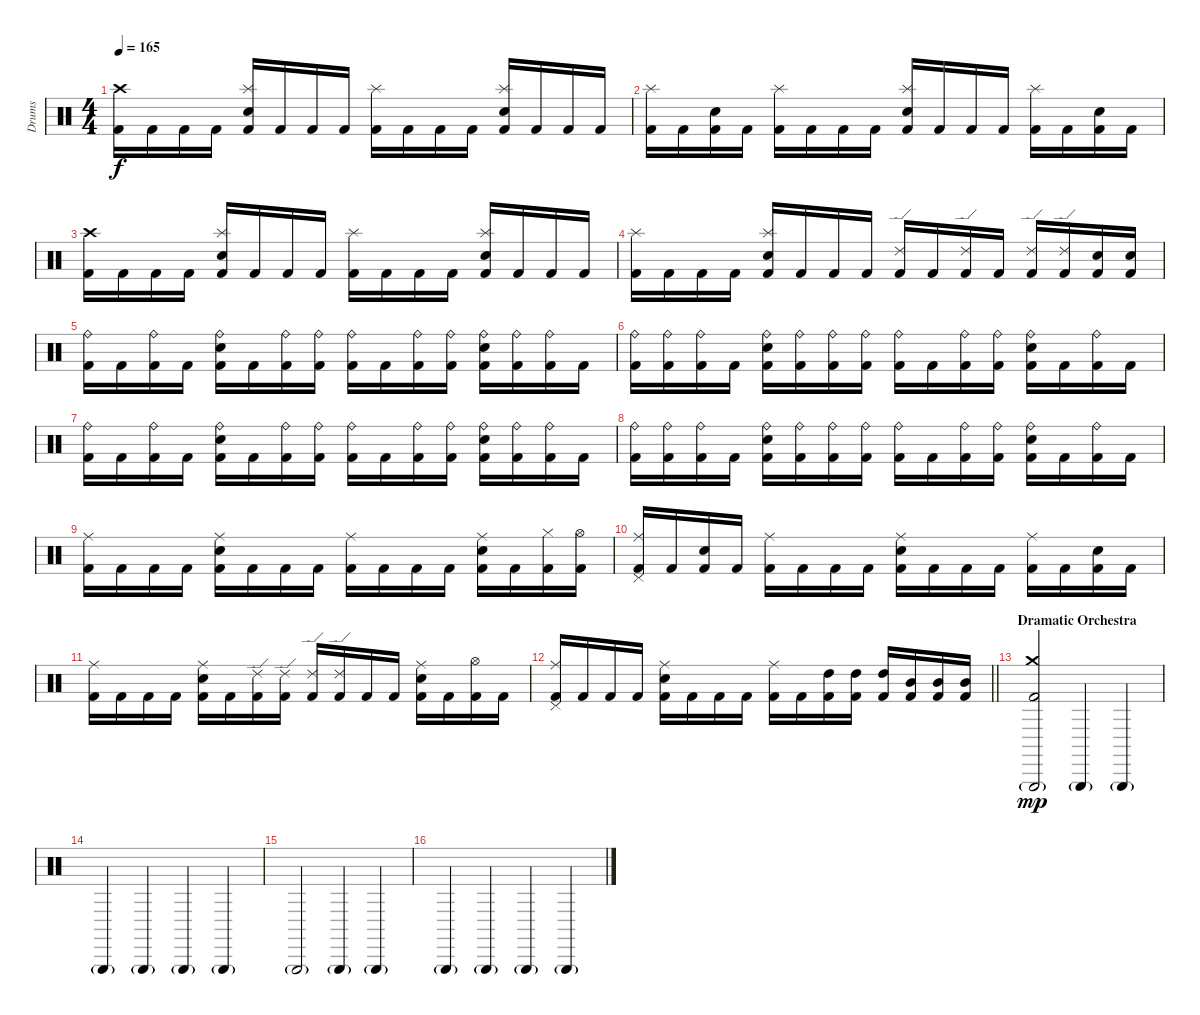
\track ("Drums" "Drums") {instrument percussion}
\staff {score}
\articulation defaults
\ts (4 4)
\tempo 165
\clef neutral
\ks c
("Crash high (hit)" "Kick (hit) 2").16{dy f} "Kick (hit) 2".16 "Kick (hit) 2".16 "Kick (hit) 2".16 ("Splash (hit)" "Snare (hit) 2" "Kick (hit) 2").16 "Kick (hit) 2".16 "Kick (hit) 2".16 "Kick (hit) 2".16 ("Splash (hit)" "Kick (hit) 2").16 "Kick (hit) 2".16 "Kick (hit) 2".16 "Kick (hit) 2".16 ("Splash (hit)" "Snare (hit) 2" "Kick (hit) 2").16 "Kick (hit) 2".16 "Kick (hit) 2".16 "Kick (hit) 2".16 |
("Splash (hit)" "Kick (hit) 2").16 "Kick (hit) 2".16 ("Snare (hit) 2" "Kick (hit) 2").16 "Kick (hit) 2".16 ("Splash (hit)" "Kick (hit) 2").16 "Kick (hit) 2".16 "Kick (hit) 2".16 "Kick (hit) 2".16 ("Splash (hit)" "Snare (hit) 2" "Kick (hit) 2").16 "Kick (hit) 2".16 "Kick (hit) 2".16 "Kick (hit) 2".16 ("Splash (hit)" "Kick (hit) 2").16 "Kick (hit) 2".16 ("Snare (hit) 2" "Kick (hit) 2").16 "Kick (hit) 2".16 |
("Crash high (hit)" "Kick (hit) 2").16 "Kick (hit) 2".16 "Kick (hit) 2".16 "Kick (hit) 2".16 ("Splash (hit)" "Snare (hit) 2" "Kick (hit) 2").16 "Kick (hit) 2".16 "Kick (hit) 2".16 "Kick (hit) 2".16 ("Splash (hit)" "Kick (hit) 2").16 "Kick (hit) 2".16 "Kick (hit) 2".16 "Kick (hit) 2".16 ("Splash (hit)" "Snare (hit) 2" "Kick (hit) 2").16 "Kick (hit) 2".16 "Kick (hit) 2".16 "Kick (hit) 2".16 |
("Splash (hit)" "Kick (hit) 2").16 "Kick (hit) 2".16 "Kick (hit) 2".16 "Kick (hit) 2".16 ("Splash (hit)" "Snare (hit) 2" "Kick (hit) 2").16 "Kick (hit) 2".16 "Kick (hit) 2".16 "Kick (hit) 2".16 ("Ride (edge) 2" "Kick (hit) 2").16 "Kick (hit) 2".16 ("Ride (edge) 2" "Kick (hit) 2").16 "Kick (hit) 2".16 ("Ride (edge) 2" "Kick (hit) 2").16 ("Ride (edge) 2" "Kick (hit) 2").16 ("Snare (hit) 2" "Kick (hit) 2").16 ("Snare (hit) 2" "Kick (hit) 2").16 |
("Ride (bell)" "Kick (hit) 2").16 "Kick (hit) 2".16 ("Ride (bell)" "Kick (hit) 2").16 "Kick (hit) 2".16 ("Ride (bell)" "Snare (hit) 2" "Kick (hit) 2").16 "Kick (hit) 2".16 ("Ride (bell)" "Kick (hit) 2").16 ("Ride (bell)" "Kick (hit) 2").16 ("Ride (bell)" "Kick (hit) 2").16 "Kick (hit) 2".16 ("Ride (bell)" "Kick (hit) 2").16 ("Ride (bell)" "Kick (hit) 2").16 ("Ride (bell)" "Snare (hit) 2" "Kick (hit) 2").16 ("Ride (bell)" "Kick (hit) 2").16 ("Ride (bell)" "Kick (hit) 2").16 "Kick (hit) 2".16 |
("Ride (bell)" "Kick (hit) 2").16 ("Ride (bell)" "Kick (hit) 2").16 ("Ride (bell)" "Kick (hit) 2").16 "Kick (hit) 2".16 ("Ride (bell)" "Snare (hit) 2" "Kick (hit) 2").16 ("Ride (bell)" "Kick (hit) 2").16 ("Ride (bell)" "Kick (hit) 2").16 ("Ride (bell)" "Kick (hit) 2").16 ("Ride (bell)" "Kick (hit) 2").16 "Kick (hit) 2".16 ("Ride (bell)" "Kick (hit) 2").16 ("Ride (bell)" "Kick (hit) 2").16 ("Ride (bell)" "Snare (hit) 2" "Kick (hit) 2").16 "Kick (hit) 2".16 ("Ride (bell)" "Kick (hit) 2").16 "Kick (hit) 2".16 |
("Ride (bell)" "Kick (hit) 2").16 "Kick (hit) 2".16 ("Ride (bell)" "Kick (hit) 2").16 "Kick (hit) 2".16 ("Ride (bell)" "Snare (hit) 2" "Kick (hit) 2").16 "Kick (hit) 2".16 ("Ride (bell)" "Kick (hit) 2").16 ("Ride (bell)" "Kick (hit) 2").16 ("Ride (bell)" "Kick (hit) 2").16 "Kick (hit) 2".16 ("Ride (bell)" "Kick (hit) 2").16 ("Ride (bell)" "Kick (hit) 2").16 ("Ride (bell)" "Snare (hit) 2" "Kick (hit) 2").16 ("Ride (bell)" "Kick (hit) 2").16 ("Ride (bell)" "Kick (hit) 2").16 "Kick (hit) 2".16 |
("Ride (bell)" "Kick (hit) 2").16 ("Ride (bell)" "Kick (hit) 2").16 ("Ride (bell)" "Kick (hit) 2").16 "Kick (hit) 2".16 ("Ride (bell)" "Snare (hit) 2" "Kick (hit) 2").16 ("Ride (bell)" "Kick (hit) 2").16 ("Ride (bell)" "Kick (hit) 2").16 ("Ride (bell)" "Kick (hit) 2").16 ("Ride (bell)" "Kick (hit) 2").16 "Kick (hit) 2".16 ("Ride (bell)" "Kick (hit) 2").16 ("Ride (bell)" "Kick (hit) 2").16 ("Ride (bell)" "Snare (hit) 2" "Kick (hit) 2").16 "Kick (hit) 2".16 ("Ride (bell)" "Kick (hit) 2").16 "Kick (hit) 2".16 |
("Ride (middle)" "Kick (hit) 2").16 "Kick (hit) 2".16 "Kick (hit) 2".16 "Kick (hit) 2".16 ("Ride (middle)" "Snare (hit) 2" "Kick (hit) 2").16 "Kick (hit) 2".16 "Kick (hit) 2".16 "Kick (hit) 2".16 ("Ride (middle)" "Kick (hit) 2").16 "Kick (hit) 2".16 "Kick (hit) 2".16 "Kick (hit) 2".16 ("Ride (middle)" "Snare (hit) 2" "Kick (hit) 2").16 "Kick (hit) 2".16 ("Hi-Hat (closed)" "Kick (hit) 2").16 ("Hi-Hat (open)" "Kick (hit) 2").16 |
("Pedal Hi-Hat (hit)" "Ride (middle)" "Kick (hit) 2").16 "Kick (hit) 2".16 ("Snare (hit) 2" "Kick (hit) 2").16 "Kick (hit) 2".16 ("Ride (middle)" "Kick (hit) 2").16 "Kick (hit) 2".16 "Kick (hit) 2".16 "Kick (hit) 2".16 ("Ride (middle)" "Snare (hit) 2" "Kick (hit) 2").16 "Kick (hit) 2".16 "Kick (hit) 2".16 "Kick (hit) 2".16 ("Ride (middle)" "Kick (hit) 2").16 "Kick (hit) 2".16 ("Snare (hit) 2" "Kick (hit) 2").16 "Kick (hit) 2".16 |
("Ride (middle)" "Kick (hit) 2").16 "Kick (hit) 2".16 "Kick (hit) 2".16 "Kick (hit) 2".16 ("Ride (middle)" "Snare (hit) 2" "Kick (hit) 2").16 "Kick (hit) 2".16 ("Ride (edge) 2" "Kick (hit) 2").16 ("Ride (edge) 2" "Kick (hit) 2").16 ("Ride (edge) 2" "Kick (hit) 2").16 ("Ride (edge) 2" "Kick (hit) 2").16 "Kick (hit) 2".16 "Kick (hit) 2".16 ("Ride (middle)" "Snare (hit) 2" "Kick (hit) 2").16 "Kick (hit) 2".16 ("Hi-Hat (open)" "Kick (hit) 2").16 "Kick (hit) 2".16 |
\barLineRight lightlight
("Pedal Hi-Hat (hit)" "Ride (middle)" "Kick (hit) 2").16 "Kick (hit) 2".16 "Kick (hit) 2".16 "Kick (hit) 2".16 ("Ride (middle)" "Snare (hit) 2" "Kick (hit) 2").16 "Kick (hit) 2".16 "Kick (hit) 2".16 "Kick (hit) 2".16 ("Ride (middle)" "Kick (hit) 2").16 "Kick (hit) 2".16 ("High Tom (hit)" "Kick (hit) 2").16 ("High Tom (hit)" "Kick (hit) 2").16 ("High Tom (hit)" "Kick (hit) 2").16 ("Mid Tom (hit)" "Kick (hit) 2").16 ("Mid Tom (hit)" "Kick (hit) 2").16 ("Mid Tom (hit)" "Kick (hit) 2").16 |
\section ("" "Dramatic Orchestra")
("Crash medium (hit)" "Triangle (hit)"{g} "Kick (hit) 2").2{dy mp} "Triangle (hit)"{g}.4 "Triangle (hit)"{g}.4 |
"Triangle (hit)"{g}.4 "Triangle (hit)"{g}.4 "Triangle (hit)"{g}.4 "Triangle (hit)"{g}.4 |
"Triangle (hit)"{g}.2 "Triangle (hit)"{g}.4 "Triangle (hit)"{g}.4 |
"Triangle (hit)"{g}.4 "Triangle (hit)"{g}.4 "Triangle (hit)"{g}.4 "Triangle (hit)"{g}.4
